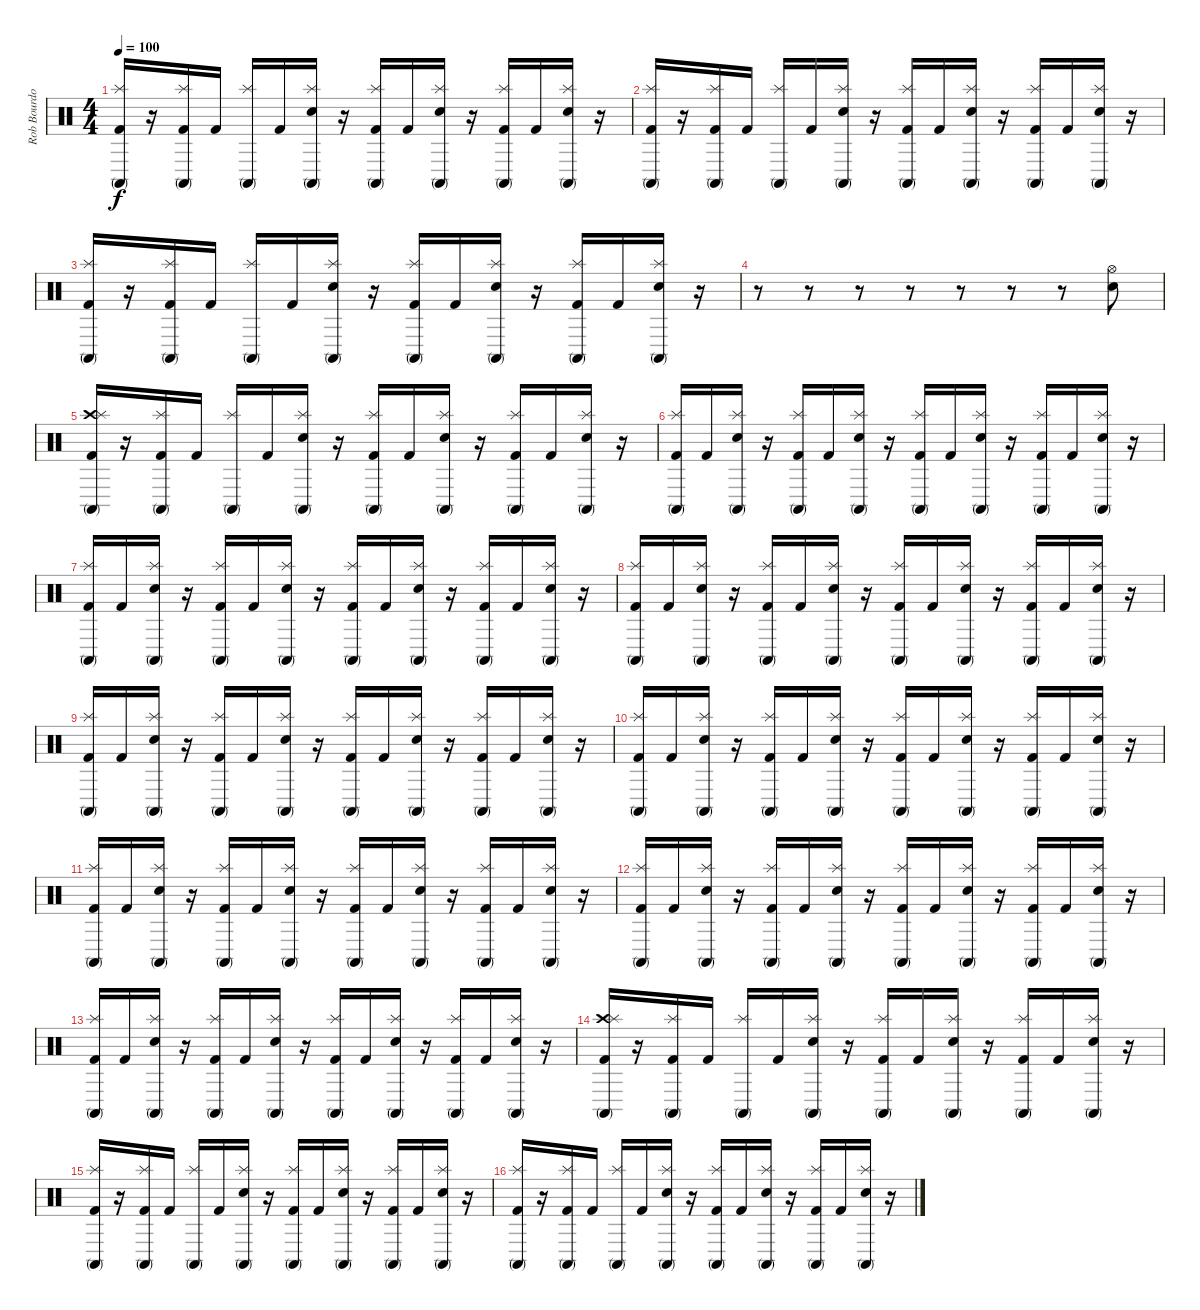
\track ("Rob Bourdon" "Rob Bourdo") {instrument percussion}
\staff {score}
\articulation defaults
\ts (4 4)
\tempo 100
\clef neutral
\ks c
("Conga high (mute)" "Splash (hit)" "Kick (hit) 2").16{dy f} r.16 ("Conga high (mute)" "Splash (hit)" "Kick (hit) 2").16 "Kick (hit) 2".16 ("Conga high (mute)" "Splash (hit)").16 "Kick (hit) 2".16 ("Conga high (mute)" "Splash (hit)" "Electric Snare (hit)").16 r.16 ("Conga high (mute)" "Splash (hit)" "Kick (hit) 2").16 "Kick (hit) 2".16 ("Conga high (mute)" "Splash (hit)" "Electric Snare (hit)").16 r.16 ("Conga high (mute)" "Splash (hit)" "Kick (hit) 2").16 "Kick (hit) 2".16 ("Conga high (mute)" "Splash (hit)" "Electric Snare (hit)").16 r.16 |
("Conga high (mute)" "Splash (hit)" "Kick (hit) 2").16 r.16 ("Conga high (mute)" "Splash (hit)" "Kick (hit) 2").16 "Kick (hit) 2".16 ("Conga high (mute)" "Splash (hit)").16 "Kick (hit) 2".16 ("Conga high (mute)" "Splash (hit)" "Electric Snare (hit)").16 r.16 ("Conga high (mute)" "Splash (hit)" "Kick (hit) 2").16 "Kick (hit) 2".16 ("Conga high (mute)" "Splash (hit)" "Electric Snare (hit)").16 r.16 ("Conga high (mute)" "Splash (hit)" "Kick (hit) 2").16 "Kick (hit) 2".16 ("Conga high (mute)" "Splash (hit)" "Electric Snare (hit)").16 r.16 |
("Conga high (mute)" "Splash (hit)" "Kick (hit) 2").16 r.16 ("Conga high (mute)" "Splash (hit)" "Kick (hit) 2").16 "Kick (hit) 2".16 ("Conga high (mute)" "Splash (hit)").16 "Kick (hit) 2".16 ("Conga high (mute)" "Splash (hit)" "Electric Snare (hit)").16 r.16 ("Conga high (mute)" "Splash (hit)" "Kick (hit) 2").16 "Kick (hit) 2".16 ("Conga high (mute)" "Splash (hit)" "Electric Snare (hit)").16 r.16 ("Conga high (mute)" "Splash (hit)" "Kick (hit) 2").16 "Kick (hit) 2".16 ("Conga high (mute)" "Splash (hit)" "Electric Snare (hit)").16 r.16 |
r.8 r.8 r.8 r.8 r.8 r.8 r.8 ("Hi-Hat (open)" "Electric Snare (hit)").8 |
("Conga high (mute)" "Crash high (hit)" "Splash (hit)" "Kick (hit) 2").16 r.16 ("Conga high (mute)" "Splash (hit)" "Kick (hit) 2").16 "Kick (hit) 2".16 ("Conga high (mute)" "Splash (hit)").16 "Kick (hit) 2".16 ("Conga high (mute)" "Splash (hit)" "Electric Snare (hit)").16 r.16 ("Conga high (mute)" "Splash (hit)" "Kick (hit) 2").16 "Kick (hit) 2".16 ("Conga high (mute)" "Splash (hit)" "Electric Snare (hit)").16 r.16 ("Conga high (mute)" "Splash (hit)" "Kick (hit) 2").16 "Kick (hit) 2".16 ("Conga high (mute)" "Splash (hit)" "Electric Snare (hit)").16 r.16 |
("Conga high (mute)" "Splash (hit)" "Kick (hit) 2").16 "Kick (hit) 2".16 ("Conga high (mute)" "Splash (hit)" "Electric Snare (hit)").16 r.16 ("Conga high (mute)" "Splash (hit)" "Kick (hit) 2").16 "Kick (hit) 2".16 ("Conga high (mute)" "Splash (hit)" "Electric Snare (hit)").16 r.16 ("Conga high (mute)" "Splash (hit)" "Kick (hit) 2").16 "Kick (hit) 2".16 ("Conga high (mute)" "Splash (hit)" "Electric Snare (hit)").16 r.16 ("Conga high (mute)" "Splash (hit)" "Kick (hit) 2").16 "Kick (hit) 2".16 ("Conga high (mute)" "Splash (hit)" "Electric Snare (hit)").16 r.16 |
("Conga high (mute)" "Splash (hit)" "Kick (hit) 2").16 "Kick (hit) 2".16 ("Conga high (mute)" "Splash (hit)" "Electric Snare (hit)").16 r.16 ("Conga high (mute)" "Splash (hit)" "Kick (hit) 2").16 "Kick (hit) 2".16 ("Conga high (mute)" "Splash (hit)" "Electric Snare (hit)").16 r.16 ("Conga high (mute)" "Splash (hit)" "Kick (hit) 2").16 "Kick (hit) 2".16 ("Conga high (mute)" "Splash (hit)" "Electric Snare (hit)").16 r.16 ("Conga high (mute)" "Splash (hit)" "Kick (hit) 2").16 "Kick (hit) 2".16 ("Conga high (mute)" "Splash (hit)" "Electric Snare (hit)").16 r.16 |
("Conga high (mute)" "Splash (hit)" "Kick (hit) 2").16 "Kick (hit) 2".16 ("Conga high (mute)" "Splash (hit)" "Electric Snare (hit)").16 r.16 ("Conga high (mute)" "Splash (hit)" "Kick (hit) 2").16 "Kick (hit) 2".16 ("Conga high (mute)" "Splash (hit)" "Electric Snare (hit)").16 r.16 ("Conga high (mute)" "Splash (hit)" "Kick (hit) 2").16 "Kick (hit) 2".16 ("Conga high (mute)" "Splash (hit)" "Electric Snare (hit)").16 r.16 ("Conga high (mute)" "Splash (hit)" "Kick (hit) 2").16 "Kick (hit) 2".16 ("Conga high (mute)" "Splash (hit)" "Electric Snare (hit)").16 r.16 |
("Conga high (mute)" "Splash (hit)" "Kick (hit) 2").16 "Kick (hit) 2".16 ("Conga high (mute)" "Splash (hit)" "Electric Snare (hit)").16 r.16 ("Conga high (mute)" "Splash (hit)" "Kick (hit) 2").16 "Kick (hit) 2".16 ("Conga high (mute)" "Splash (hit)" "Electric Snare (hit)").16 r.16 ("Conga high (mute)" "Splash (hit)" "Kick (hit) 2").16 "Kick (hit) 2".16 ("Conga high (mute)" "Splash (hit)" "Electric Snare (hit)").16 r.16 ("Conga high (mute)" "Splash (hit)" "Kick (hit) 2").16 "Kick (hit) 2".16 ("Conga high (mute)" "Splash (hit)" "Electric Snare (hit)").16 r.16 |
("Conga high (mute)" "Splash (hit)" "Kick (hit) 2").16 "Kick (hit) 2".16 ("Conga high (mute)" "Splash (hit)" "Electric Snare (hit)").16 r.16 ("Conga high (mute)" "Splash (hit)" "Kick (hit) 2").16 "Kick (hit) 2".16 ("Conga high (mute)" "Splash (hit)" "Electric Snare (hit)").16 r.16 ("Conga high (mute)" "Splash (hit)" "Kick (hit) 2").16 "Kick (hit) 2".16 ("Conga high (mute)" "Splash (hit)" "Electric Snare (hit)").16 r.16 ("Conga high (mute)" "Splash (hit)" "Kick (hit) 2").16 "Kick (hit) 2".16 ("Conga high (mute)" "Splash (hit)" "Electric Snare (hit)").16 r.16 |
("Conga high (mute)" "Splash (hit)" "Kick (hit) 2").16 "Kick (hit) 2".16 ("Conga high (mute)" "Splash (hit)" "Electric Snare (hit)").16 r.16 ("Conga high (mute)" "Splash (hit)" "Kick (hit) 2").16 "Kick (hit) 2".16 ("Conga high (mute)" "Splash (hit)" "Electric Snare (hit)").16 r.16 ("Conga high (mute)" "Splash (hit)" "Kick (hit) 2").16 "Kick (hit) 2".16 ("Conga high (mute)" "Splash (hit)" "Electric Snare (hit)").16 r.16 ("Conga high (mute)" "Splash (hit)" "Kick (hit) 2").16 "Kick (hit) 2".16 ("Conga high (mute)" "Splash (hit)" "Electric Snare (hit)").16 r.16 |
("Conga high (mute)" "Splash (hit)" "Kick (hit) 2").16 "Kick (hit) 2".16 ("Conga high (mute)" "Splash (hit)" "Electric Snare (hit)").16 r.16 ("Conga high (mute)" "Splash (hit)" "Kick (hit) 2").16 "Kick (hit) 2".16 ("Conga high (mute)" "Splash (hit)" "Electric Snare (hit)").16 r.16 ("Conga high (mute)" "Splash (hit)" "Kick (hit) 2").16 "Kick (hit) 2".16 ("Conga high (mute)" "Splash (hit)" "Electric Snare (hit)").16 r.16 ("Conga high (mute)" "Splash (hit)" "Kick (hit) 2").16 "Kick (hit) 2".16 ("Conga high (mute)" "Splash (hit)" "Electric Snare (hit)").16 r.16 |
("Conga high (mute)" "Splash (hit)" "Kick (hit) 2").16 "Kick (hit) 2".16 ("Conga high (mute)" "Splash (hit)" "Electric Snare (hit)").16 r.16 ("Conga high (mute)" "Splash (hit)" "Kick (hit) 2").16 "Kick (hit) 2".16 ("Conga high (mute)" "Splash (hit)" "Electric Snare (hit)").16 r.16 ("Conga high (mute)" "Splash (hit)" "Kick (hit) 2").16 "Kick (hit) 2".16 ("Conga high (mute)" "Splash (hit)" "Electric Snare (hit)").16 r.16 ("Conga high (mute)" "Splash (hit)" "Kick (hit) 2").16 "Kick (hit) 2".16 ("Conga high (mute)" "Splash (hit)" "Electric Snare (hit)").16 r.16 |
("Conga high (mute)" "Crash high (hit)" "Splash (hit)" "Kick (hit) 2").16 r.16 ("Conga high (mute)" "Splash (hit)" "Kick (hit) 2").16 "Kick (hit) 2".16 ("Conga high (mute)" "Splash (hit)").16 "Kick (hit) 2".16 ("Conga high (mute)" "Splash (hit)" "Electric Snare (hit)").16 r.16 ("Conga high (mute)" "Splash (hit)" "Kick (hit) 2").16 "Kick (hit) 2".16 ("Conga high (mute)" "Splash (hit)" "Electric Snare (hit)").16 r.16 ("Conga high (mute)" "Splash (hit)" "Kick (hit) 2").16 "Kick (hit) 2".16 ("Conga high (mute)" "Splash (hit)" "Electric Snare (hit)").16 r.16 |
("Conga high (mute)" "Splash (hit)" "Kick (hit) 2").16 r.16 ("Conga high (mute)" "Splash (hit)" "Kick (hit) 2").16 "Kick (hit) 2".16 ("Conga high (mute)" "Splash (hit)").16 "Kick (hit) 2".16 ("Conga high (mute)" "Splash (hit)" "Electric Snare (hit)").16 r.16 ("Conga high (mute)" "Splash (hit)" "Kick (hit) 2").16 "Kick (hit) 2".16 ("Conga high (mute)" "Splash (hit)" "Electric Snare (hit)").16 r.16 ("Conga high (mute)" "Splash (hit)" "Kick (hit) 2").16 "Kick (hit) 2".16 ("Conga high (mute)" "Splash (hit)" "Electric Snare (hit)").16 r.16 |
("Conga high (mute)" "Splash (hit)" "Kick (hit) 2").16 r.16 ("Conga high (mute)" "Splash (hit)" "Kick (hit) 2").16 "Kick (hit) 2".16 ("Conga high (mute)" "Splash (hit)").16 "Kick (hit) 2".16 ("Conga high (mute)" "Splash (hit)" "Electric Snare (hit)").16 r.16 ("Conga high (mute)" "Splash (hit)" "Kick (hit) 2").16 "Kick (hit) 2".16 ("Conga high (mute)" "Splash (hit)" "Electric Snare (hit)").16 r.16 ("Conga high (mute)" "Splash (hit)" "Kick (hit) 2").16 "Kick (hit) 2".16 ("Conga high (mute)" "Splash (hit)" "Electric Snare (hit)").16 r.16
